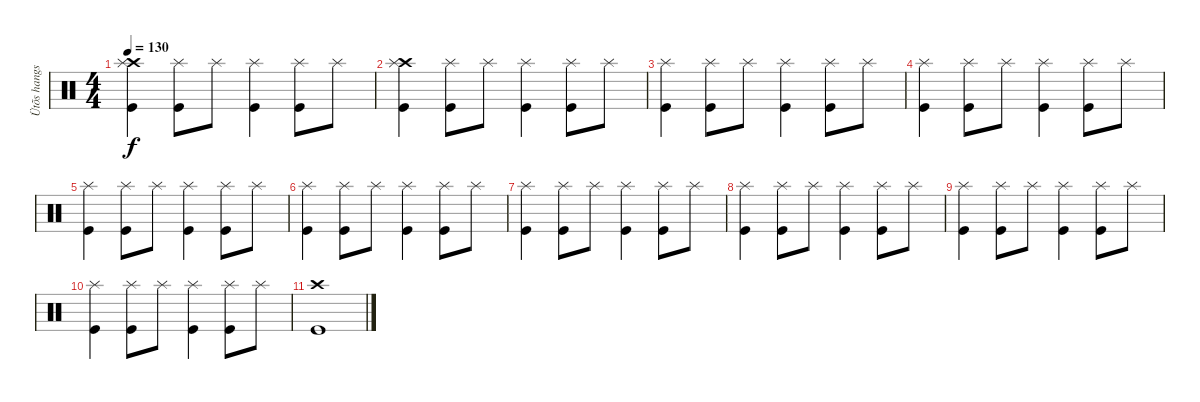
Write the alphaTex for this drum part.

\track ("Ütõs hangszer" "Ütõs hangs") {instrument percussion}
\staff {score}
\articulation defaults
\ts (4 4)
\tempo 130
\clef neutral
\ks c
("Crash high (hit)" "Splash (hit)" "Kick (hit)").4{dy f} ("Splash (hit)" "Kick (hit)").8 "Splash (hit)".8 ("Splash (hit)" "Kick (hit)").4 ("Splash (hit)" "Kick (hit)").8 "Splash (hit)".8 |
("Crash high (hit)" "Splash (hit)" "Kick (hit)").4 ("Splash (hit)" "Kick (hit)").8 "Splash (hit)".8 ("Splash (hit)" "Kick (hit)").4 ("Splash (hit)" "Kick (hit)").8 "Splash (hit)".8 |
("Splash (hit)" "Kick (hit)").4 ("Splash (hit)" "Kick (hit)").8 "Splash (hit)".8 ("Splash (hit)" "Kick (hit)").4 ("Splash (hit)" "Kick (hit)").8 "Splash (hit)".8 |
("Splash (hit)" "Kick (hit)").4 ("Splash (hit)" "Kick (hit)").8 "Splash (hit)".8 ("Splash (hit)" "Kick (hit)").4 ("Splash (hit)" "Kick (hit)").8 "Splash (hit)".8 |
("Splash (hit)" "Kick (hit)").4 ("Splash (hit)" "Kick (hit)").8 "Splash (hit)".8 ("Splash (hit)" "Kick (hit)").4 ("Splash (hit)" "Kick (hit)").8 "Splash (hit)".8 |
("Splash (hit)" "Kick (hit)").4 ("Splash (hit)" "Kick (hit)").8 "Splash (hit)".8 ("Splash (hit)" "Kick (hit)").4 ("Splash (hit)" "Kick (hit)").8 "Splash (hit)".8 |
("Splash (hit)" "Kick (hit)").4 ("Splash (hit)" "Kick (hit)").8 "Splash (hit)".8 ("Splash (hit)" "Kick (hit)").4 ("Splash (hit)" "Kick (hit)").8 "Splash (hit)".8 |
("Splash (hit)" "Kick (hit)").4 ("Splash (hit)" "Kick (hit)").8 "Splash (hit)".8 ("Splash (hit)" "Kick (hit)").4 ("Splash (hit)" "Kick (hit)").8 "Splash (hit)".8 |
("Splash (hit)" "Kick (hit)").4 ("Splash (hit)" "Kick (hit)").8 "Splash (hit)".8 ("Splash (hit)" "Kick (hit)").4 ("Splash (hit)" "Kick (hit)").8 "Splash (hit)".8 |
("Splash (hit)" "Kick (hit)").4 ("Splash (hit)" "Kick (hit)").8 "Splash (hit)".8 ("Splash (hit)" "Kick (hit)").4 ("Splash (hit)" "Kick (hit)").8 "Splash (hit)".8 |
("Crash high (hit)" "Kick (hit)").1
